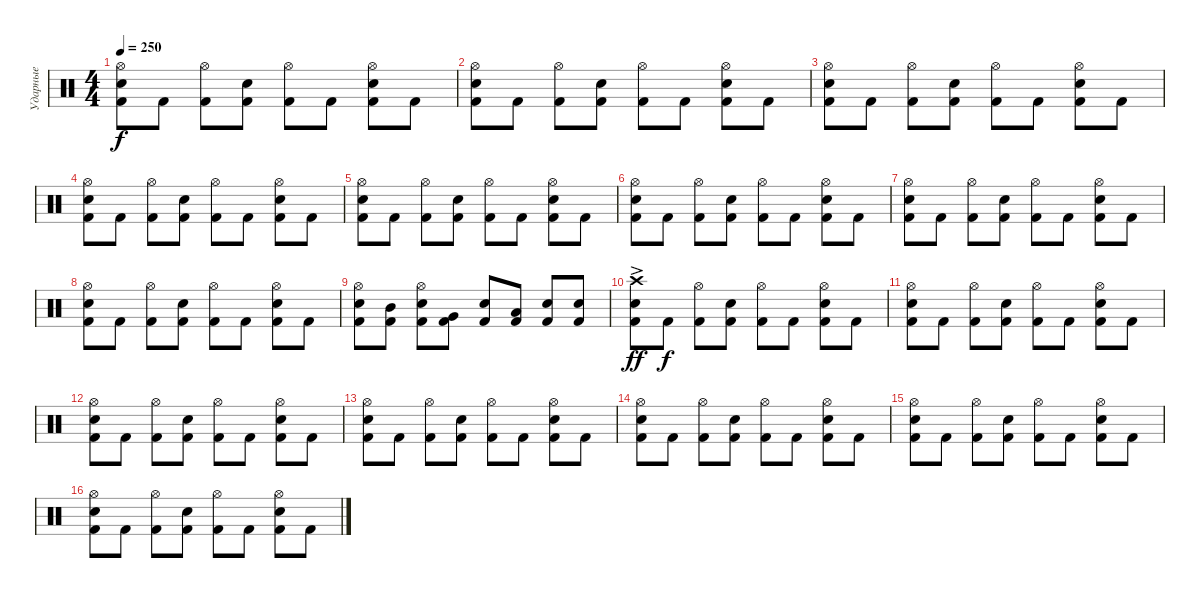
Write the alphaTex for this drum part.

\track ("Ударные" "Ударные") {instrument percussion}
\staff {score}
\articulation defaults
\ts (4 4)
\tempo 250
\clef neutral
\ks c
("Kick (hit) 2" "Snare (hit) 2" "Hi-Hat (open)").8{dy f} "Kick (hit) 2".8 ("Kick (hit) 2" "Hi-Hat (open)").8 ("Kick (hit) 2" "Snare (hit) 2").8 ("Kick (hit) 2" "Hi-Hat (open)").8 "Kick (hit) 2".8 ("Kick (hit) 2" "Snare (hit) 2" "Hi-Hat (open)").8 "Kick (hit) 2".8 |
("Kick (hit) 2" "Snare (hit) 2" "Hi-Hat (open)").8 "Kick (hit) 2".8 ("Kick (hit) 2" "Hi-Hat (open)").8 ("Kick (hit) 2" "Snare (hit) 2").8 ("Kick (hit) 2" "Hi-Hat (open)").8 "Kick (hit) 2".8 ("Kick (hit) 2" "Snare (hit) 2" "Hi-Hat (open)").8 "Kick (hit) 2".8 |
("Kick (hit) 2" "Snare (hit) 2" "Hi-Hat (open)").8 "Kick (hit) 2".8 ("Kick (hit) 2" "Hi-Hat (open)").8 ("Kick (hit) 2" "Snare (hit) 2").8 ("Kick (hit) 2" "Hi-Hat (open)").8 "Kick (hit) 2".8 ("Kick (hit) 2" "Snare (hit) 2" "Hi-Hat (open)").8 "Kick (hit) 2".8 |
("Kick (hit) 2" "Snare (hit) 2" "Hi-Hat (open)").8 "Kick (hit) 2".8 ("Kick (hit) 2" "Hi-Hat (open)").8 ("Kick (hit) 2" "Snare (hit) 2").8 ("Kick (hit) 2" "Hi-Hat (open)").8 "Kick (hit) 2".8 ("Kick (hit) 2" "Snare (hit) 2" "Hi-Hat (open)").8 "Kick (hit) 2".8 |
("Kick (hit) 2" "Snare (hit) 2" "Hi-Hat (open)").8 "Kick (hit) 2".8 ("Kick (hit) 2" "Hi-Hat (open)").8 ("Kick (hit) 2" "Snare (hit) 2").8 ("Kick (hit) 2" "Hi-Hat (open)").8 "Kick (hit) 2".8 ("Kick (hit) 2" "Snare (hit) 2" "Hi-Hat (open)").8 "Kick (hit) 2".8 |
("Kick (hit) 2" "Snare (hit) 2" "Hi-Hat (open)").8 "Kick (hit) 2".8 ("Kick (hit) 2" "Hi-Hat (open)").8 ("Kick (hit) 2" "Snare (hit) 2").8 ("Kick (hit) 2" "Hi-Hat (open)").8 "Kick (hit) 2".8 ("Kick (hit) 2" "Snare (hit) 2" "Hi-Hat (open)").8 "Kick (hit) 2".8 |
("Kick (hit) 2" "Snare (hit) 2" "Hi-Hat (open)").8 "Kick (hit) 2".8 ("Kick (hit) 2" "Hi-Hat (open)").8 ("Kick (hit) 2" "Snare (hit) 2").8 ("Kick (hit) 2" "Hi-Hat (open)").8 "Kick (hit) 2".8 ("Kick (hit) 2" "Snare (hit) 2" "Hi-Hat (open)").8 "Kick (hit) 2".8 |
("Kick (hit) 2" "Snare (hit) 2" "Hi-Hat (open)").8 "Kick (hit) 2".8 ("Kick (hit) 2" "Hi-Hat (open)").8 ("Kick (hit) 2" "Snare (hit) 2").8 ("Kick (hit) 2" "Hi-Hat (open)").8 "Kick (hit) 2".8 ("Kick (hit) 2" "Snare (hit) 2" "Hi-Hat (open)").8 "Kick (hit) 2".8 |
("Kick (hit) 2" "Snare (hit) 2" "Hi-Hat (open)").8 ("Kick (hit) 2" "Mid Tom (hit)").8 ("Kick (hit) 2" "Snare (hit) 2" "Hi-Hat (open)").8 ("Kick (hit) 2" "Very Low Tom (hit)").8 ("Kick (hit) 2" "Snare (hit) 2").8 ("Kick (hit) 2" "Low Tom (hit)").8 ("Kick (hit) 2" "Snare (hit) 2").8 ("Kick (hit) 2" "Snare (hit) 2").8 |
("Kick (hit) 2" "Snare (hit) 2" "Crash high (hit)"{ac}).8{dy ff} "Kick (hit) 2".8{dy f} ("Kick (hit) 2" "Hi-Hat (open)").8 ("Kick (hit) 2" "Snare (hit) 2").8 ("Kick (hit) 2" "Hi-Hat (open)").8 "Kick (hit) 2".8 ("Kick (hit) 2" "Snare (hit) 2" "Hi-Hat (open)").8 "Kick (hit) 2".8 |
("Kick (hit) 2" "Snare (hit) 2" "Hi-Hat (open)").8 "Kick (hit) 2".8 ("Kick (hit) 2" "Hi-Hat (open)").8 ("Kick (hit) 2" "Snare (hit) 2").8 ("Kick (hit) 2" "Hi-Hat (open)").8 "Kick (hit) 2".8 ("Kick (hit) 2" "Snare (hit) 2" "Hi-Hat (open)").8 "Kick (hit) 2".8 |
("Kick (hit) 2" "Snare (hit) 2" "Hi-Hat (open)").8 "Kick (hit) 2".8 ("Kick (hit) 2" "Hi-Hat (open)").8 ("Kick (hit) 2" "Snare (hit) 2").8 ("Kick (hit) 2" "Hi-Hat (open)").8 "Kick (hit) 2".8 ("Kick (hit) 2" "Snare (hit) 2" "Hi-Hat (open)").8 "Kick (hit) 2".8 |
("Kick (hit) 2" "Snare (hit) 2" "Hi-Hat (open)").8 "Kick (hit) 2".8 ("Kick (hit) 2" "Hi-Hat (open)").8 ("Kick (hit) 2" "Snare (hit) 2").8 ("Kick (hit) 2" "Hi-Hat (open)").8 "Kick (hit) 2".8 ("Kick (hit) 2" "Snare (hit) 2" "Hi-Hat (open)").8 "Kick (hit) 2".8 |
("Kick (hit) 2" "Snare (hit) 2" "Hi-Hat (open)").8 "Kick (hit) 2".8 ("Kick (hit) 2" "Hi-Hat (open)").8 ("Kick (hit) 2" "Snare (hit) 2").8 ("Kick (hit) 2" "Hi-Hat (open)").8 "Kick (hit) 2".8 ("Kick (hit) 2" "Snare (hit) 2" "Hi-Hat (open)").8 "Kick (hit) 2".8 |
("Kick (hit) 2" "Snare (hit) 2" "Hi-Hat (open)").8 "Kick (hit) 2".8 ("Kick (hit) 2" "Hi-Hat (open)").8 ("Kick (hit) 2" "Snare (hit) 2").8 ("Kick (hit) 2" "Hi-Hat (open)").8 "Kick (hit) 2".8 ("Kick (hit) 2" "Snare (hit) 2" "Hi-Hat (open)").8 "Kick (hit) 2".8 |
("Kick (hit) 2" "Snare (hit) 2" "Hi-Hat (open)").8 "Kick (hit) 2".8 ("Kick (hit) 2" "Hi-Hat (open)").8 ("Kick (hit) 2" "Snare (hit) 2").8 ("Kick (hit) 2" "Hi-Hat (open)").8 "Kick (hit) 2".8 ("Kick (hit) 2" "Snare (hit) 2" "Hi-Hat (open)").8 "Kick (hit) 2".8
